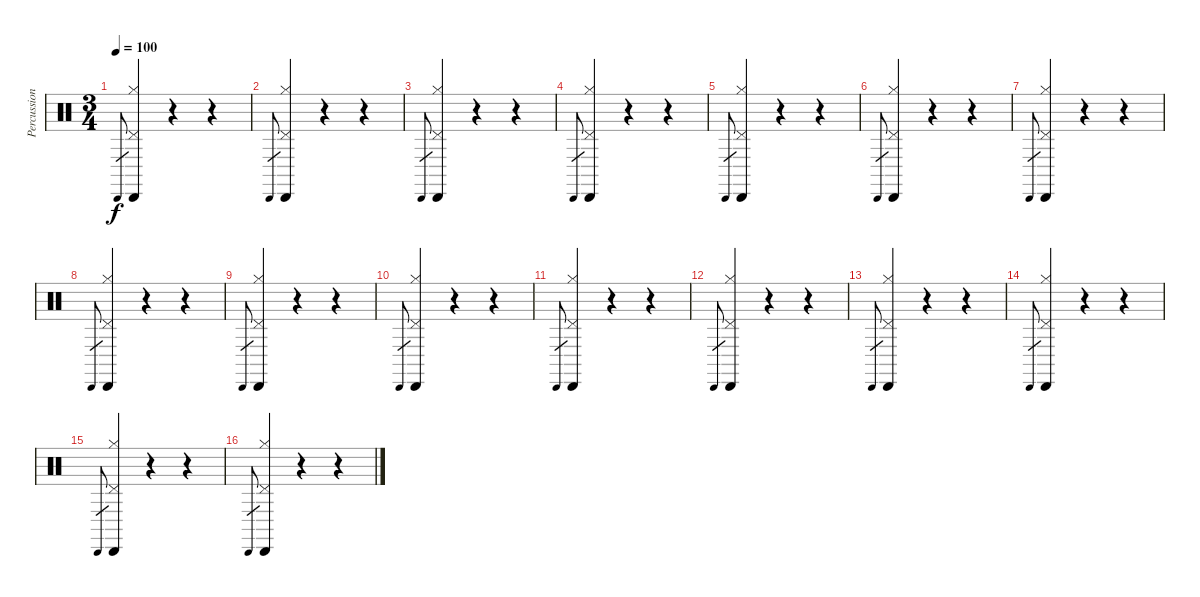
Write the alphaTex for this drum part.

\track ("Percussion" "Percussion") {instrument percussion}
\staff {score}
\articulation defaults
\ts (3 4)
\tempo 100
\clef neutral
\ks c "Cabasa (hit)".8{gr dy f}
("Pedal Hi-Hat (hit)" "Cabasa (hit)" "Hi-Hat (closed)").4 r.4 r.4 |
"Cabasa (hit)".8{gr} ("Pedal Hi-Hat (hit)" "Cabasa (hit)" "Hi-Hat (closed)").4 r.4 r.4 |
"Cabasa (hit)".8{gr} ("Pedal Hi-Hat (hit)" "Cabasa (hit)" "Hi-Hat (closed)").4 r.4 r.4 |
"Cabasa (hit)".8{gr} ("Pedal Hi-Hat (hit)" "Cabasa (hit)" "Hi-Hat (closed)").4 r.4 r.4 |
"Cabasa (hit)".8{gr} ("Pedal Hi-Hat (hit)" "Cabasa (hit)" "Hi-Hat (closed)").4 r.4 r.4 |
"Cabasa (hit)".8{gr} ("Pedal Hi-Hat (hit)" "Cabasa (hit)" "Hi-Hat (closed)").4 r.4 r.4 |
"Cabasa (hit)".8{gr} ("Pedal Hi-Hat (hit)" "Cabasa (hit)" "Hi-Hat (closed)").4 r.4 r.4 |
"Cabasa (hit)".8{gr} ("Pedal Hi-Hat (hit)" "Cabasa (hit)" "Hi-Hat (closed)").4 r.4 r.4 |
"Cabasa (hit)".8{gr} ("Pedal Hi-Hat (hit)" "Cabasa (hit)" "Hi-Hat (closed)").4 r.4 r.4 |
"Cabasa (hit)".8{gr} ("Pedal Hi-Hat (hit)" "Cabasa (hit)" "Hi-Hat (closed)").4 r.4 r.4 |
"Cabasa (hit)".8{gr} ("Pedal Hi-Hat (hit)" "Cabasa (hit)" "Hi-Hat (closed)").4 r.4 r.4 |
"Cabasa (hit)".8{gr} ("Pedal Hi-Hat (hit)" "Cabasa (hit)" "Hi-Hat (closed)").4 r.4 r.4 |
"Cabasa (hit)".8{gr} ("Pedal Hi-Hat (hit)" "Cabasa (hit)" "Hi-Hat (closed)").4 r.4 r.4 |
"Cabasa (hit)".8{gr} ("Pedal Hi-Hat (hit)" "Cabasa (hit)" "Hi-Hat (closed)").4 r.4 r.4 |
"Cabasa (hit)".8{gr} ("Pedal Hi-Hat (hit)" "Cabasa (hit)" "Hi-Hat (closed)").4 r.4 r.4 |
"Cabasa (hit)".8{gr} ("Pedal Hi-Hat (hit)" "Cabasa (hit)" "Hi-Hat (closed)").4 r.4 r.4
